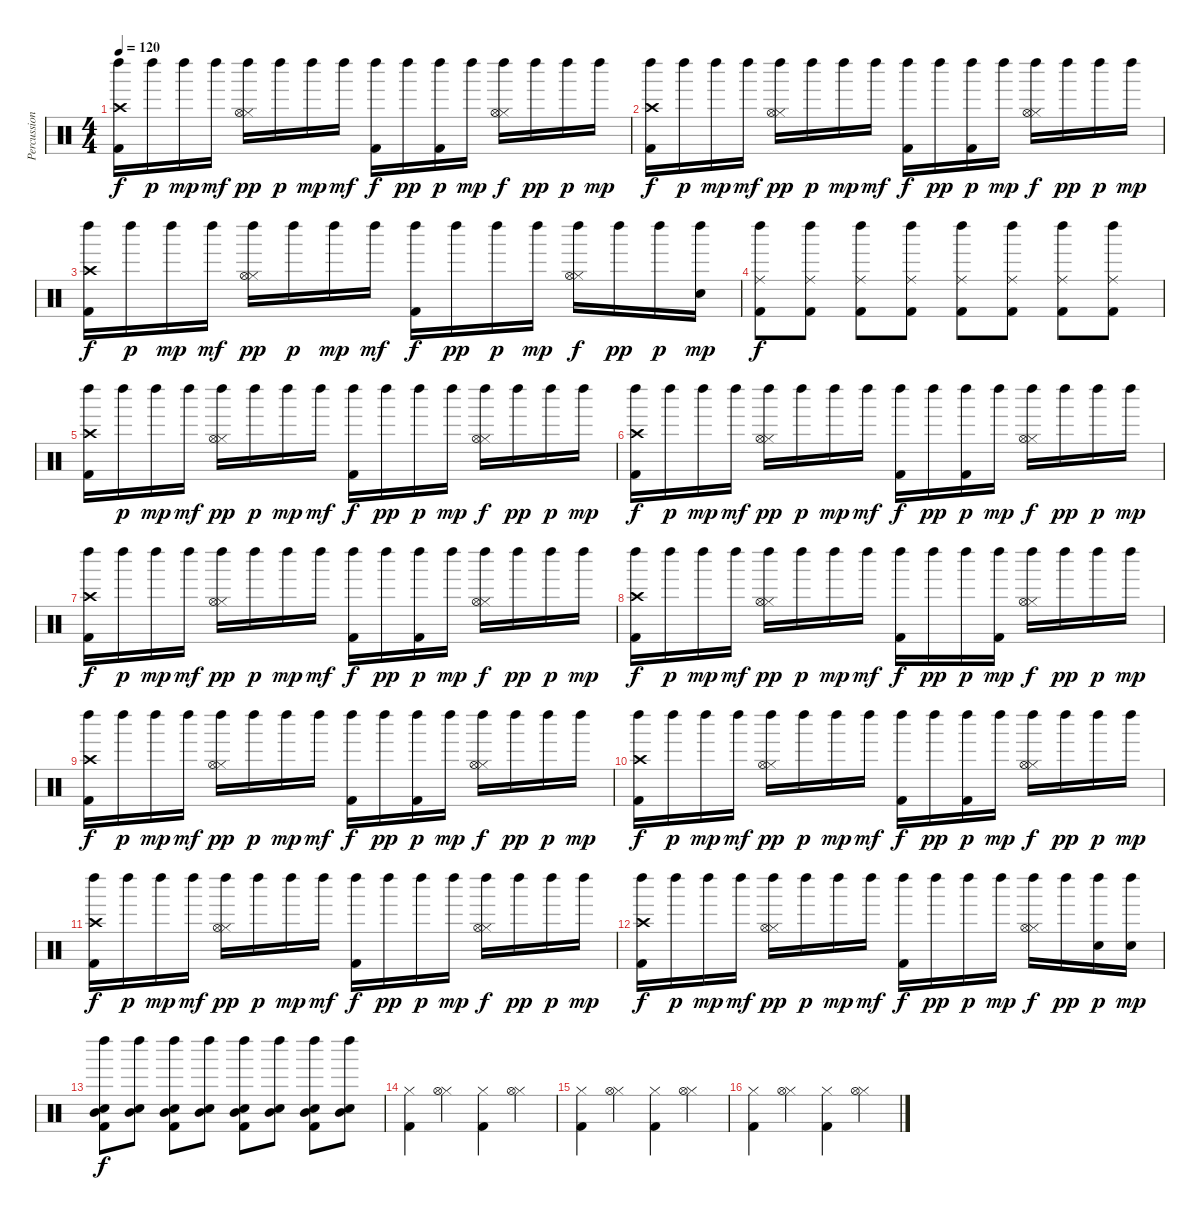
\track ("Percussion" "Percussion") {instrument percussion}
\staff {score}
\articulation defaults
\ts (4 4)
\tempo 120
\clef neutral
\ks c
("Kick (hit) 2" "Crash high (hit)" "Left Maraca (hit)").16{dy f} "Left Maraca (hit)".16{dy p} "Left Maraca (hit)".16{dy mp} "Left Maraca (hit)".16{dy mf} ("Hi-Hat (closed)" "Hi-Hat (open)" "Left Maraca (hit)").16{dy pp} "Left Maraca (hit)".16{dy p} "Left Maraca (hit)".16{dy mp} "Left Maraca (hit)".16{dy mf} ("Kick (hit) 2" "Left Maraca (hit)").16{dy f} "Left Maraca (hit)".16{dy pp} ("Kick (hit) 2" "Left Maraca (hit)").16{dy p} "Left Maraca (hit)".16{dy mp} ("Hi-Hat (closed)" "Hi-Hat (open)" "Left Maraca (hit)").16{dy f} "Left Maraca (hit)".16{dy pp} "Left Maraca (hit)".16{dy p} "Left Maraca (hit)".16{dy mp} |
("Kick (hit) 2" "Crash high (hit)" "Left Maraca (hit)").16{dy f} "Left Maraca (hit)".16{dy p} "Left Maraca (hit)".16{dy mp} "Left Maraca (hit)".16{dy mf} ("Hi-Hat (closed)" "Hi-Hat (open)" "Left Maraca (hit)").16{dy pp} "Left Maraca (hit)".16{dy p} "Left Maraca (hit)".16{dy mp} "Left Maraca (hit)".16{dy mf} ("Kick (hit) 2" "Left Maraca (hit)").16{dy f} "Left Maraca (hit)".16{dy pp} ("Kick (hit) 2" "Left Maraca (hit)").16{dy p} "Left Maraca (hit)".16{dy mp} ("Hi-Hat (closed)" "Hi-Hat (open)" "Left Maraca (hit)").16{dy f} "Left Maraca (hit)".16{dy pp} "Left Maraca (hit)".16{dy p} "Left Maraca (hit)".16{dy mp} |
("Kick (hit) 2" "Crash high (hit)" "Left Maraca (hit)").16{dy f} "Left Maraca (hit)".16{dy p} "Left Maraca (hit)".16{dy mp} "Left Maraca (hit)".16{dy mf} ("Hi-Hat (closed)" "Hi-Hat (open)" "Left Maraca (hit)").16{dy pp} "Left Maraca (hit)".16{dy p} "Left Maraca (hit)".16{dy mp} "Left Maraca (hit)".16{dy mf} ("Kick (hit) 2" "Left Maraca (hit)").16{dy f} "Left Maraca (hit)".16{dy pp} "Left Maraca (hit)".16{dy p} "Left Maraca (hit)".16{dy mp} ("Hi-Hat (closed)" "Hi-Hat (open)" "Left Maraca (hit)").16{dy f} "Left Maraca (hit)".16{dy pp} "Left Maraca (hit)".16{dy p} ("Snare (hit) 2" "Left Maraca (hit)").16{dy mp} |
("Kick (hit) 2" "Ride (middle)" "Left Maraca (hit)").8{dy f} ("Kick (hit) 2" "Ride (middle)" "Left Maraca (hit)").8 ("Kick (hit) 2" "Ride (middle)" "Left Maraca (hit)").8 ("Kick (hit) 2" "Ride (middle)" "Left Maraca (hit)").8 ("Kick (hit) 2" "Ride (middle)" "Left Maraca (hit)").8 ("Kick (hit) 2" "Ride (middle)" "Left Maraca (hit)").8 ("Kick (hit) 2" "Ride (middle)" "Left Maraca (hit)").8 ("Kick (hit) 2" "Ride (middle)" "Left Maraca (hit)").8 |
("Kick (hit) 2" "Crash high (hit)" "Left Maraca (hit)").16 "Left Maraca (hit)".16{dy p} "Left Maraca (hit)".16{dy mp} "Left Maraca (hit)".16{dy mf} ("Hi-Hat (closed)" "Hi-Hat (open)" "Left Maraca (hit)").16{dy pp} "Left Maraca (hit)".16{dy p} "Left Maraca (hit)".16{dy mp} "Left Maraca (hit)".16{dy mf} ("Kick (hit) 2" "Left Maraca (hit)").16{dy f} "Left Maraca (hit)".16{dy pp} "Left Maraca (hit)".16{dy p} "Left Maraca (hit)".16{dy mp} ("Hi-Hat (closed)" "Hi-Hat (open)" "Left Maraca (hit)").16{dy f} "Left Maraca (hit)".16{dy pp} "Left Maraca (hit)".16{dy p} "Left Maraca (hit)".16{dy mp} |
("Kick (hit) 2" "Crash high (hit)" "Left Maraca (hit)").16{dy f} "Left Maraca (hit)".16{dy p} "Left Maraca (hit)".16{dy mp} "Left Maraca (hit)".16{dy mf} ("Hi-Hat (closed)" "Hi-Hat (open)" "Left Maraca (hit)").16{dy pp} "Left Maraca (hit)".16{dy p} "Left Maraca (hit)".16{dy mp} "Left Maraca (hit)".16{dy mf} ("Kick (hit) 2" "Left Maraca (hit)").16{dy f} "Left Maraca (hit)".16{dy pp} ("Kick (hit) 2" "Left Maraca (hit)").16{dy p} "Left Maraca (hit)".16{dy mp} ("Hi-Hat (closed)" "Hi-Hat (open)" "Left Maraca (hit)").16{dy f} "Left Maraca (hit)".16{dy pp} "Left Maraca (hit)".16{dy p} "Left Maraca (hit)".16{dy mp} |
("Kick (hit) 2" "Crash high (hit)" "Left Maraca (hit)").16{dy f} "Left Maraca (hit)".16{dy p} "Left Maraca (hit)".16{dy mp} "Left Maraca (hit)".16{dy mf} ("Hi-Hat (closed)" "Hi-Hat (open)" "Left Maraca (hit)").16{dy pp} "Left Maraca (hit)".16{dy p} "Left Maraca (hit)".16{dy mp} "Left Maraca (hit)".16{dy mf} ("Kick (hit) 2" "Left Maraca (hit)").16{dy f} "Left Maraca (hit)".16{dy pp} ("Kick (hit) 2" "Left Maraca (hit)").16{dy p} "Left Maraca (hit)".16{dy mp} ("Hi-Hat (closed)" "Hi-Hat (open)" "Left Maraca (hit)").16{dy f} "Left Maraca (hit)".16{dy pp} "Left Maraca (hit)".16{dy p} "Left Maraca (hit)".16{dy mp} |
("Kick (hit) 2" "Crash high (hit)" "Left Maraca (hit)").16{dy f} "Left Maraca (hit)".16{dy p} "Left Maraca (hit)".16{dy mp} "Left Maraca (hit)".16{dy mf} ("Hi-Hat (closed)" "Hi-Hat (open)" "Left Maraca (hit)").16{dy pp} "Left Maraca (hit)".16{dy p} "Left Maraca (hit)".16{dy mp} "Left Maraca (hit)".16{dy mf} ("Kick (hit) 2" "Left Maraca (hit)").16{dy f} "Left Maraca (hit)".16{dy pp} "Left Maraca (hit)".16{dy p} ("Kick (hit) 2" "Left Maraca (hit)").16{dy mp} ("Hi-Hat (closed)" "Hi-Hat (open)" "Left Maraca (hit)").16{dy f} "Left Maraca (hit)".16{dy pp} "Left Maraca (hit)".16{dy p} "Left Maraca (hit)".16{dy mp} |
("Kick (hit) 2" "Crash high (hit)" "Left Maraca (hit)").16{dy f} "Left Maraca (hit)".16{dy p} "Left Maraca (hit)".16{dy mp} "Left Maraca (hit)".16{dy mf} ("Hi-Hat (closed)" "Hi-Hat (open)" "Left Maraca (hit)").16{dy pp} "Left Maraca (hit)".16{dy p} "Left Maraca (hit)".16{dy mp} "Left Maraca (hit)".16{dy mf} ("Kick (hit) 2" "Left Maraca (hit)").16{dy f} "Left Maraca (hit)".16{dy pp} ("Kick (hit) 2" "Left Maraca (hit)").16{dy p} "Left Maraca (hit)".16{dy mp} ("Hi-Hat (closed)" "Hi-Hat (open)" "Left Maraca (hit)").16{dy f} "Left Maraca (hit)".16{dy pp} "Left Maraca (hit)".16{dy p} "Left Maraca (hit)".16{dy mp} |
("Kick (hit) 2" "Crash high (hit)" "Left Maraca (hit)").16{dy f} "Left Maraca (hit)".16{dy p} "Left Maraca (hit)".16{dy mp} "Left Maraca (hit)".16{dy mf} ("Hi-Hat (closed)" "Hi-Hat (open)" "Left Maraca (hit)").16{dy pp} "Left Maraca (hit)".16{dy p} "Left Maraca (hit)".16{dy mp} "Left Maraca (hit)".16{dy mf} ("Kick (hit) 2" "Left Maraca (hit)").16{dy f} "Left Maraca (hit)".16{dy pp} ("Kick (hit) 2" "Left Maraca (hit)").16{dy p} "Left Maraca (hit)".16{dy mp} ("Hi-Hat (closed)" "Hi-Hat (open)" "Left Maraca (hit)").16{dy f} "Left Maraca (hit)".16{dy pp} "Left Maraca (hit)".16{dy p} "Left Maraca (hit)".16{dy mp} |
("Kick (hit) 2" "Crash high (hit)" "Left Maraca (hit)").16{dy f} "Left Maraca (hit)".16{dy p} "Left Maraca (hit)".16{dy mp} "Left Maraca (hit)".16{dy mf} ("Hi-Hat (closed)" "Hi-Hat (open)" "Left Maraca (hit)").16{dy pp} "Left Maraca (hit)".16{dy p} "Left Maraca (hit)".16{dy mp} "Left Maraca (hit)".16{dy mf} ("Kick (hit) 2" "Left Maraca (hit)").16{dy f} "Left Maraca (hit)".16{dy pp} "Left Maraca (hit)".16{dy p} "Left Maraca (hit)".16{dy mp} ("Hi-Hat (closed)" "Hi-Hat (open)" "Left Maraca (hit)").16{dy f} "Left Maraca (hit)".16{dy pp} "Left Maraca (hit)".16{dy p} "Left Maraca (hit)".16{dy mp} |
("Kick (hit) 2" "Crash high (hit)" "Left Maraca (hit)").16{dy f} "Left Maraca (hit)".16{dy p} "Left Maraca (hit)".16{dy mp} "Left Maraca (hit)".16{dy mf} ("Hi-Hat (closed)" "Hi-Hat (open)" "Left Maraca (hit)").16{dy pp} "Left Maraca (hit)".16{dy p} "Left Maraca (hit)".16{dy mp} "Left Maraca (hit)".16{dy mf} ("Kick (hit) 2" "Left Maraca (hit)").16{dy f} "Left Maraca (hit)".16{dy pp} "Left Maraca (hit)".16{dy p} "Left Maraca (hit)".16{dy mp} ("Hi-Hat (closed)" "Hi-Hat (open)" "Left Maraca (hit)").16{dy f} "Left Maraca (hit)".16{dy pp} ("Snare (hit) 2" "Left Maraca (hit)").16{dy p} ("Snare (hit) 2" "Left Maraca (hit)").16{dy mp} |
("Kick (hit) 2" "Snare (hit) 2" "Mid Tom (hit)" "Left Maraca (hit)").8{dy f} ("Snare (hit) 2" "Mid Tom (hit)" "Left Maraca (hit)").8 ("Kick (hit) 2" "Snare (hit) 2" "Mid Tom (hit)" "Left Maraca (hit)").8 ("Snare (hit) 2" "Mid Tom (hit)" "Left Maraca (hit)").8 ("Kick (hit) 2" "Snare (hit) 2" "Mid Tom (hit)" "Left Maraca (hit)").8 ("Snare (hit) 2" "Mid Tom (hit)" "Left Maraca (hit)").8 ("Kick (hit) 2" "Snare (hit) 2" "Mid Tom (hit)" "Left Maraca (hit)").8 ("Snare (hit) 2" "Mid Tom (hit)" "Left Maraca (hit)").8 |
("Kick (hit) 2" "Hi-Hat (closed)").4 ("Hi-Hat (closed)" "Hi-Hat (open)").4 ("Kick (hit) 2" "Hi-Hat (closed)").4 ("Hi-Hat (closed)" "Hi-Hat (open)").4 |
("Kick (hit) 2" "Hi-Hat (closed)").4 ("Hi-Hat (closed)" "Hi-Hat (open)").4 ("Kick (hit) 2" "Hi-Hat (closed)").4 ("Hi-Hat (closed)" "Hi-Hat (open)").4 |
("Kick (hit) 2" "Hi-Hat (closed)").4 ("Hi-Hat (closed)" "Hi-Hat (open)").4 ("Kick (hit) 2" "Hi-Hat (closed)").4 ("Hi-Hat (closed)" "Hi-Hat (open)").4
